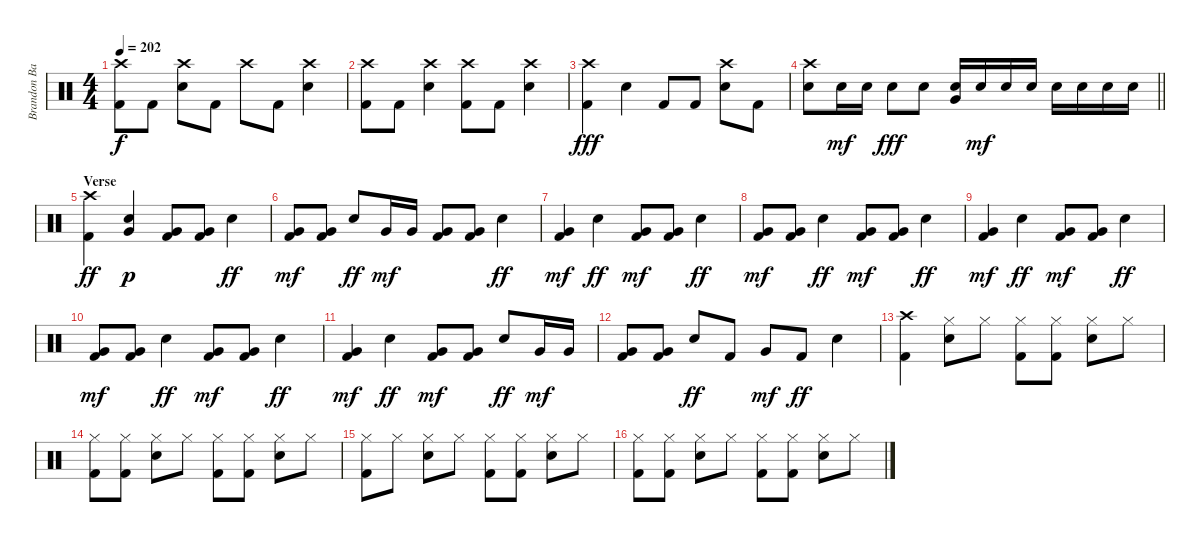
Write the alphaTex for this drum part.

\track ("Brandon Barnes - Drums" "Brandon Ba") {instrument percussion}
\staff {score}
\articulation defaults
\ts (4 4)
\tempo 202
\clef neutral
\ks c
("Kick (hit) 2" "Crash high (hit)").8{dy f} "Kick (hit) 2".8 ("Snare (hit) 2" "Crash high (hit)").8 "Kick (hit) 2".8 "Crash high (hit)".8 "Kick (hit) 2".8 ("Snare (hit) 2" "Crash high (hit)").4 |
("Kick (hit) 2" "Crash high (hit)").8 "Kick (hit) 2".8 ("Snare (hit) 2" "Crash high (hit)").4 ("Kick (hit) 2" "Crash high (hit)").8 "Kick (hit) 2".8 ("Snare (hit) 2" "Crash high (hit)").4 |
("Crash high (hit)" "Kick (hit) 2").4{dy fff} "Snare (hit) 2".4 "Kick (hit) 2".8 "Kick (hit) 2".8 ("Snare (hit) 2" "Crash high (hit)").8 "Kick (hit) 2".8 |
\barLineRight lightlight
("Snare (hit) 2" "Crash high (hit)").8 "Snare (hit) 2".16{dy mf} "Snare (hit) 2".16 "Snare (hit) 2".8{dy fff} "Snare (hit) 2".8 ("Snare (hit) 2" "Very Low Tom (hit)").16 "Snare (hit) 2".16{dy mf} "Snare (hit) 2".16 "Snare (hit) 2".16 "Snare (hit) 2".16 "Snare (hit) 2".16 "Snare (hit) 2".16 "Snare (hit) 2".16 |
\section ("" "Verse")
("Crash high (hit)" "Kick (hit) 2").4{dy ff} ("Snare (hit) 2" "Very Low Tom (hit)").4{dy p} ("Kick (hit) 2" "Very Low Tom (hit)").8 ("Kick (hit) 2" "Very Low Tom (hit)").8 "Snare (hit) 2".4{dy ff} |
("Kick (hit) 2" "Very Low Tom (hit)").8{dy mf} ("Kick (hit) 2" "Very Low Tom (hit)").8 "Snare (hit) 2".8{dy ff} "Very Low Tom (hit)".16{dy mf} "Very Low Tom (hit)".16 ("Kick (hit) 2" "Very Low Tom (hit)").8 ("Kick (hit) 2" "Very Low Tom (hit)").8 "Snare (hit) 2".4{dy ff} |
("Kick (hit) 2" "Very Low Tom (hit)").4{dy mf} "Snare (hit) 2".4{dy ff} ("Kick (hit) 2" "Very Low Tom (hit)").8{dy mf} ("Kick (hit) 2" "Very Low Tom (hit)").8 "Snare (hit) 2".4{dy ff} |
("Kick (hit) 2" "Very Low Tom (hit)").8{dy mf} ("Kick (hit) 2" "Very Low Tom (hit)").8 "Snare (hit) 2".4{dy ff} ("Kick (hit) 2" "Very Low Tom (hit)").8{dy mf} ("Kick (hit) 2" "Very Low Tom (hit)").8 "Snare (hit) 2".4{dy ff} |
("Kick (hit) 2" "Very Low Tom (hit)").4{dy mf} "Snare (hit) 2".4{dy ff} ("Kick (hit) 2" "Very Low Tom (hit)").8{dy mf} ("Kick (hit) 2" "Very Low Tom (hit)").8 "Snare (hit) 2".4{dy ff} |
("Kick (hit) 2" "Very Low Tom (hit)").8{dy mf} ("Kick (hit) 2" "Very Low Tom (hit)").8 "Snare (hit) 2".4{dy ff} ("Kick (hit) 2" "Very Low Tom (hit)").8{dy mf} ("Kick (hit) 2" "Very Low Tom (hit)").8 "Snare (hit) 2".4{dy ff} |
("Kick (hit) 2" "Very Low Tom (hit)").4{dy mf} "Snare (hit) 2".4{dy ff} ("Kick (hit) 2" "Very Low Tom (hit)").8{dy mf} ("Kick (hit) 2" "Very Low Tom (hit)").8 "Snare (hit) 2".8{dy ff} "Very Low Tom (hit)".16{dy mf} "Very Low Tom (hit)".16 |
("Kick (hit) 2" "Very Low Tom (hit)").8 ("Kick (hit) 2" "Very Low Tom (hit)").8 "Snare (hit) 2".8{dy ff} "Kick (hit) 2".8 "Very Low Tom (hit)".8{dy mf} "Kick (hit) 2".8{dy ff} "Snare (hit) 2".4 |
("Crash high (hit)" "Kick (hit) 2").4 ("Snare (hit) 2" "Hi-Hat (closed)").8 "Hi-Hat (closed)".8 ("Kick (hit) 2" "Hi-Hat (closed)").8 ("Kick (hit) 2" "Hi-Hat (closed)").8 ("Snare (hit) 2" "Hi-Hat (closed)").8 "Hi-Hat (closed)".8 |
("Kick (hit) 2" "Hi-Hat (closed)").8 ("Kick (hit) 2" "Hi-Hat (closed)").8 ("Snare (hit) 2" "Hi-Hat (closed)").8 "Hi-Hat (closed)".8 ("Kick (hit) 2" "Hi-Hat (closed)").8 ("Kick (hit) 2" "Hi-Hat (closed)").8 ("Snare (hit) 2" "Hi-Hat (closed)").8 "Hi-Hat (closed)".8 |
("Kick (hit) 2" "Hi-Hat (closed)").8 "Hi-Hat (closed)".8 ("Snare (hit) 2" "Hi-Hat (closed)").8 "Hi-Hat (closed)".8 ("Kick (hit) 2" "Hi-Hat (closed)").8 ("Kick (hit) 2" "Hi-Hat (closed)").8 ("Snare (hit) 2" "Hi-Hat (closed)").8 "Hi-Hat (closed)".8 |
("Kick (hit) 2" "Hi-Hat (closed)").8 ("Kick (hit) 2" "Hi-Hat (closed)").8 ("Snare (hit) 2" "Hi-Hat (closed)").8 "Hi-Hat (closed)".8 ("Kick (hit) 2" "Hi-Hat (closed)").8 ("Kick (hit) 2" "Hi-Hat (closed)").8 ("Snare (hit) 2" "Hi-Hat (closed)").8 "Hi-Hat (closed)".8
